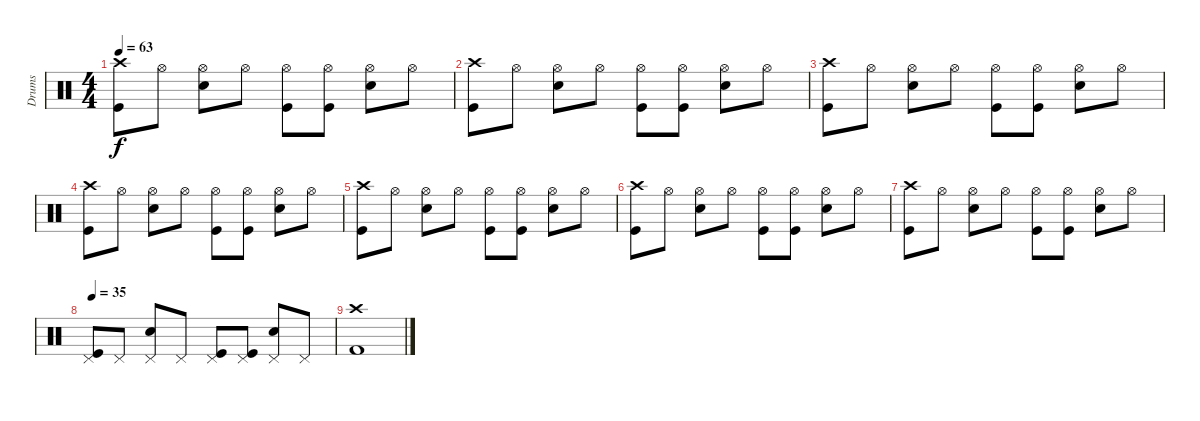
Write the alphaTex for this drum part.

\track ("Drums" "Drums") {instrument percussion}
\staff {score}
\articulation defaults
\ts (4 4)
\tempo 63
\clef neutral
\ks c
("Crash high (hit)" "Kick (hit)").8{dy f} "Hi-Hat (open)".8 ("Hi-Hat (open)" "Electric Snare (hit)").8 "Hi-Hat (open)".8 ("Hi-Hat (open)" "Kick (hit)").8 ("Hi-Hat (open)" "Kick (hit)").8 ("Hi-Hat (open)" "Electric Snare (hit)").8 "Hi-Hat (open)".8 |
("Crash high (hit)" "Kick (hit)").8 "Hi-Hat (open)".8 ("Hi-Hat (open)" "Electric Snare (hit)").8 "Hi-Hat (open)".8 ("Hi-Hat (open)" "Kick (hit)").8 ("Hi-Hat (open)" "Kick (hit)").8 ("Hi-Hat (open)" "Electric Snare (hit)").8 "Hi-Hat (open)".8 |
("Crash high (hit)" "Kick (hit)").8 "Hi-Hat (open)".8 ("Hi-Hat (open)" "Electric Snare (hit)").8 "Hi-Hat (open)".8 ("Hi-Hat (open)" "Kick (hit)").8 ("Hi-Hat (open)" "Kick (hit)").8 ("Hi-Hat (open)" "Electric Snare (hit)").8 "Hi-Hat (open)".8 |
("Crash high (hit)" "Kick (hit)").8 "Hi-Hat (open)".8 ("Hi-Hat (open)" "Electric Snare (hit)").8 "Hi-Hat (open)".8 ("Hi-Hat (open)" "Kick (hit)").8 ("Hi-Hat (open)" "Kick (hit)").8 ("Hi-Hat (open)" "Electric Snare (hit)").8 "Hi-Hat (open)".8 |
("Crash high (hit)" "Kick (hit)").8 "Hi-Hat (open)".8 ("Hi-Hat (open)" "Electric Snare (hit)").8 "Hi-Hat (open)".8 ("Hi-Hat (open)" "Kick (hit)").8 ("Hi-Hat (open)" "Kick (hit)").8 ("Hi-Hat (open)" "Electric Snare (hit)").8 "Hi-Hat (open)".8 |
("Crash high (hit)" "Kick (hit)").8 "Hi-Hat (open)".8 ("Hi-Hat (open)" "Electric Snare (hit)").8 "Hi-Hat (open)".8 ("Hi-Hat (open)" "Kick (hit)").8 ("Hi-Hat (open)" "Kick (hit)").8 ("Hi-Hat (open)" "Electric Snare (hit)").8 "Hi-Hat (open)".8 |
("Crash high (hit)" "Kick (hit)").8 "Hi-Hat (open)".8 ("Hi-Hat (open)" "Electric Snare (hit)").8 "Hi-Hat (open)".8 ("Hi-Hat (open)" "Kick (hit)").8 ("Hi-Hat (open)" "Kick (hit)").8 ("Hi-Hat (open)" "Electric Snare (hit)").8 "Hi-Hat (open)".8 |
\tempo 35
("Pedal Hi-Hat (hit)" "Kick (hit)").8 "Pedal Hi-Hat (hit)".8 ("Pedal Hi-Hat (hit)" "Electric Snare (hit)").8 "Pedal Hi-Hat (hit)".8 ("Pedal Hi-Hat (hit)" "Kick (hit)").8 ("Pedal Hi-Hat (hit)" "Kick (hit)").8 ("Pedal Hi-Hat (hit)" "Electric Snare (hit)").8 "Pedal Hi-Hat (hit)".8 |
("Crash high (hit)" "Kick (hit) 2").1
